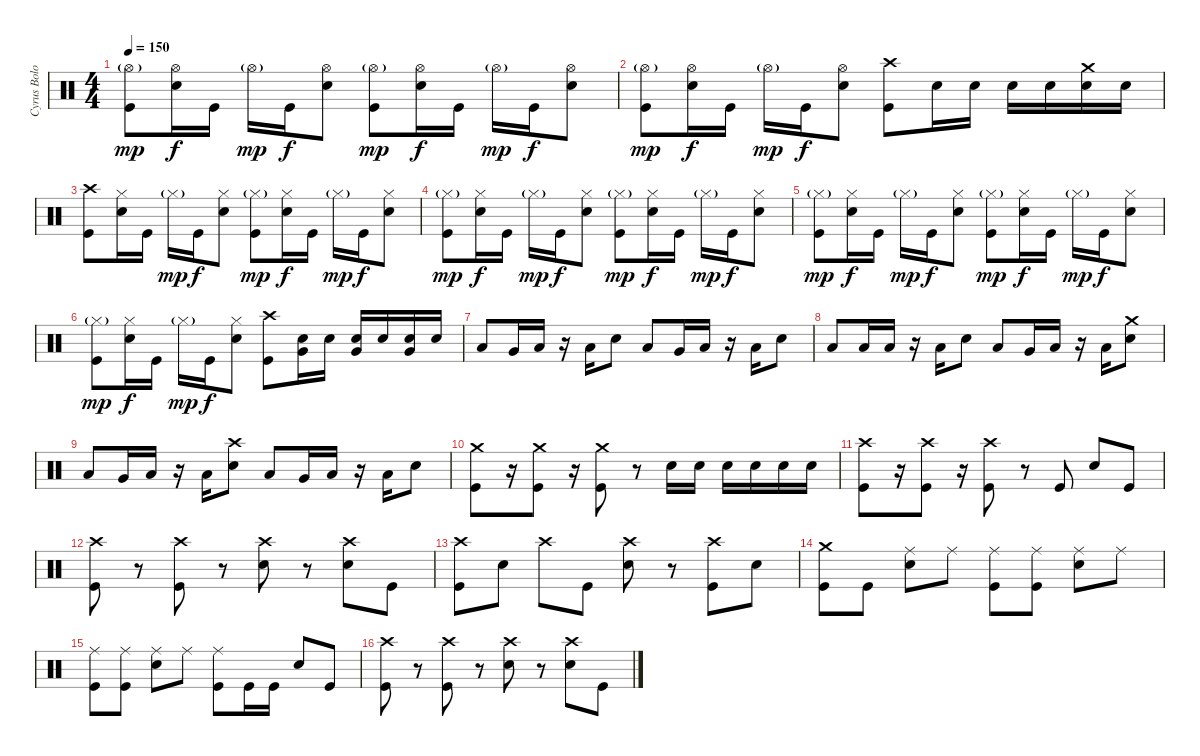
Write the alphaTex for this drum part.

\track ("Cyrus Bolooki - Drums" "Cyrus Bolo") {instrument percussion}
\staff {score}
\articulation defaults
\ts (4 4)
\tempo 150
\clef neutral
\ks c
("Hi-Hat (open)"{g} "Kick (hit)").8{dy mp} ("Hi-Hat (open)" "Electric Snare (hit)").16{dy f} "Kick (hit)".16 "Hi-Hat (open)"{g}.16{dy mp} "Kick (hit)".16{dy f} ("Hi-Hat (open)" "Electric Snare (hit)").8 ("Hi-Hat (open)"{g} "Kick (hit)").8{dy mp} ("Hi-Hat (open)" "Electric Snare (hit)").16{dy f} "Kick (hit)".16 "Hi-Hat (open)"{g}.16{dy mp} "Kick (hit)".16{dy f} ("Hi-Hat (open)" "Electric Snare (hit)").8 |
("Hi-Hat (open)"{g} "Kick (hit)").8{dy mp} ("Hi-Hat (open)" "Electric Snare (hit)").16{dy f} "Kick (hit)".16 "Hi-Hat (open)"{g}.16{dy mp} "Kick (hit)".16{dy f} ("Hi-Hat (open)" "Electric Snare (hit)").8 ("Crash high (hit)" "Kick (hit)").8 "Electric Snare (hit)".16 "Electric Snare (hit)".16 "Electric Snare (hit)".16 "Electric Snare (hit)".16 ("Crash medium (hit)" "Electric Snare (hit)").16 "Electric Snare (hit)".16 |
("Crash high (hit)" "Kick (hit)").8 ("Hi-Hat (closed)" "Electric Snare (hit)").16 "Kick (hit)".16 "Hi-Hat (closed)"{g}.16{dy mp} "Kick (hit)".16{dy f} ("Hi-Hat (closed)" "Electric Snare (hit)").8 ("Hi-Hat (closed)"{g} "Kick (hit)").8{dy mp} ("Hi-Hat (closed)" "Electric Snare (hit)").16{dy f} "Kick (hit)".16 "Hi-Hat (closed)"{g}.16{dy mp} "Kick (hit)".16{dy f} ("Hi-Hat (closed)" "Electric Snare (hit)").8 |
("Hi-Hat (closed)"{g} "Kick (hit)").8{dy mp} ("Hi-Hat (closed)" "Electric Snare (hit)").16{dy f} "Kick (hit)".16 "Hi-Hat (closed)"{g}.16{dy mp} "Kick (hit)".16{dy f} ("Hi-Hat (closed)" "Electric Snare (hit)").8 ("Hi-Hat (closed)"{g} "Kick (hit)").8{dy mp} ("Hi-Hat (closed)" "Electric Snare (hit)").16{dy f} "Kick (hit)".16 "Hi-Hat (closed)"{g}.16{dy mp} "Kick (hit)".16{dy f} ("Hi-Hat (closed)" "Electric Snare (hit)").8 |
("Hi-Hat (closed)"{g} "Kick (hit)").8{dy mp} ("Hi-Hat (closed)" "Electric Snare (hit)").16{dy f} "Kick (hit)".16 "Hi-Hat (closed)"{g}.16{dy mp} "Kick (hit)".16{dy f} ("Hi-Hat (closed)" "Electric Snare (hit)").8 ("Hi-Hat (closed)"{g} "Kick (hit)").8{dy mp} ("Hi-Hat (closed)" "Electric Snare (hit)").16{dy f} "Kick (hit)".16 "Hi-Hat (closed)"{g}.16{dy mp} "Kick (hit)".16{dy f} ("Hi-Hat (closed)" "Electric Snare (hit)").8 |
("Hi-Hat (closed)"{g} "Kick (hit)").8{dy mp} ("Hi-Hat (closed)" "Electric Snare (hit)").16{dy f} "Kick (hit)".16 "Hi-Hat (closed)"{g}.16{dy mp} "Kick (hit)".16{dy f} ("Hi-Hat (closed)" "Electric Snare (hit)").8 ("Crash high (hit)" "Kick (hit)").8 ("Very Low Tom (hit)" "Electric Snare (hit)").16 "Electric Snare (hit)".16 ("Very Low Tom (hit)" "Electric Snare (hit)").16 "Electric Snare (hit)".16 ("Very Low Tom (hit)" "Electric Snare (hit)").16 "Electric Snare (hit)".16 |
"Low Floor Tom (hit)".8 "Very Low Tom (hit)".16 "Low Floor Tom (hit)".16 r.16 "Low Floor Tom (hit)".16 "Electric Snare (hit)".8 "Low Floor Tom (hit)".8 "Very Low Tom (hit)".16 "Low Floor Tom (hit)".16 r.16 "Low Floor Tom (hit)".16 "Electric Snare (hit)".8 |
"Low Floor Tom (hit)".8 "Low Tom (hit)".16 "Low Floor Tom (hit)".16 r.16 "Low Floor Tom (hit)".16 "Electric Snare (hit)".8 "Low Floor Tom (hit)".8 "Very Low Tom (hit)".16 "Low Floor Tom (hit)".16 r.16 "Low Floor Tom (hit)".16 ("Crash medium (hit)" "Electric Snare (hit)").8 |
"Low Floor Tom (hit)".8 "Very Low Tom (hit)".16 "Low Floor Tom (hit)".16 r.16 "Low Floor Tom (hit)".16 ("Crash high (hit)" "Electric Snare (hit)").8 "Low Floor Tom (hit)".8 "Very Low Tom (hit)".16 "Low Floor Tom (hit)".16 r.16 "Low Floor Tom (hit)".16 "Electric Snare (hit)".8 |
("Crash medium (hit)" "Kick (hit)").8 r.16 ("Crash medium (hit)" "Kick (hit)").8 r.16 ("Crash medium (hit)" "Kick (hit)").8 r.8 "Electric Snare (hit)".16 "Electric Snare (hit)".16 "Electric Snare (hit)".16 "Electric Snare (hit)".16 "Electric Snare (hit)".16 "Electric Snare (hit)".16 |
("Crash high (hit)" "Kick (hit)").8 r.16 ("Crash high (hit)" "Kick (hit)").8 r.16 ("Crash high (hit)" "Kick (hit)").8 r.8 "Kick (hit)".8 "Electric Snare (hit)".8 "Kick (hit)".8 |
("Crash high (hit)" "Kick (hit)").8 r.8 ("Crash high (hit)" "Kick (hit)").8 r.8 ("Crash high (hit)" "Electric Snare (hit)").8 r.8 ("Crash high (hit)" "Electric Snare (hit)").8 "Kick (hit)".8 |
("Crash high (hit)" "Kick (hit)").8 "Electric Snare (hit)".8 "Crash high (hit)".8 "Kick (hit)".8 ("Crash high (hit)" "Electric Snare (hit)").8 r.8 ("Crash high (hit)" "Kick (hit)").8 "Electric Snare (hit)".8 |
("Crash medium (hit)" "Kick (hit)").8 "Kick (hit)".8 ("Ride (middle)" "Electric Snare (hit)").8 "Ride (middle)".8 ("Ride (middle)" "Kick (hit)").8 ("Ride (middle)" "Kick (hit)").8 ("Ride (middle)" "Electric Snare (hit)").8 "Ride (middle)".8 |
("Ride (middle)" "Kick (hit)").8 ("Ride (middle)" "Kick (hit)").8 ("Ride (middle)" "Electric Snare (hit)").8 "Ride (middle)".8 ("Ride (middle)" "Kick (hit)").8 "Kick (hit)".16 "Kick (hit)".16 "Electric Snare (hit)".8 "Kick (hit)".8 |
("Crash high (hit)" "Kick (hit)").8 r.8 ("Crash high (hit)" "Kick (hit)").8 r.8 ("Crash high (hit)" "Electric Snare (hit)").8 r.8 ("Crash high (hit)" "Electric Snare (hit)").8 "Kick (hit)".8
